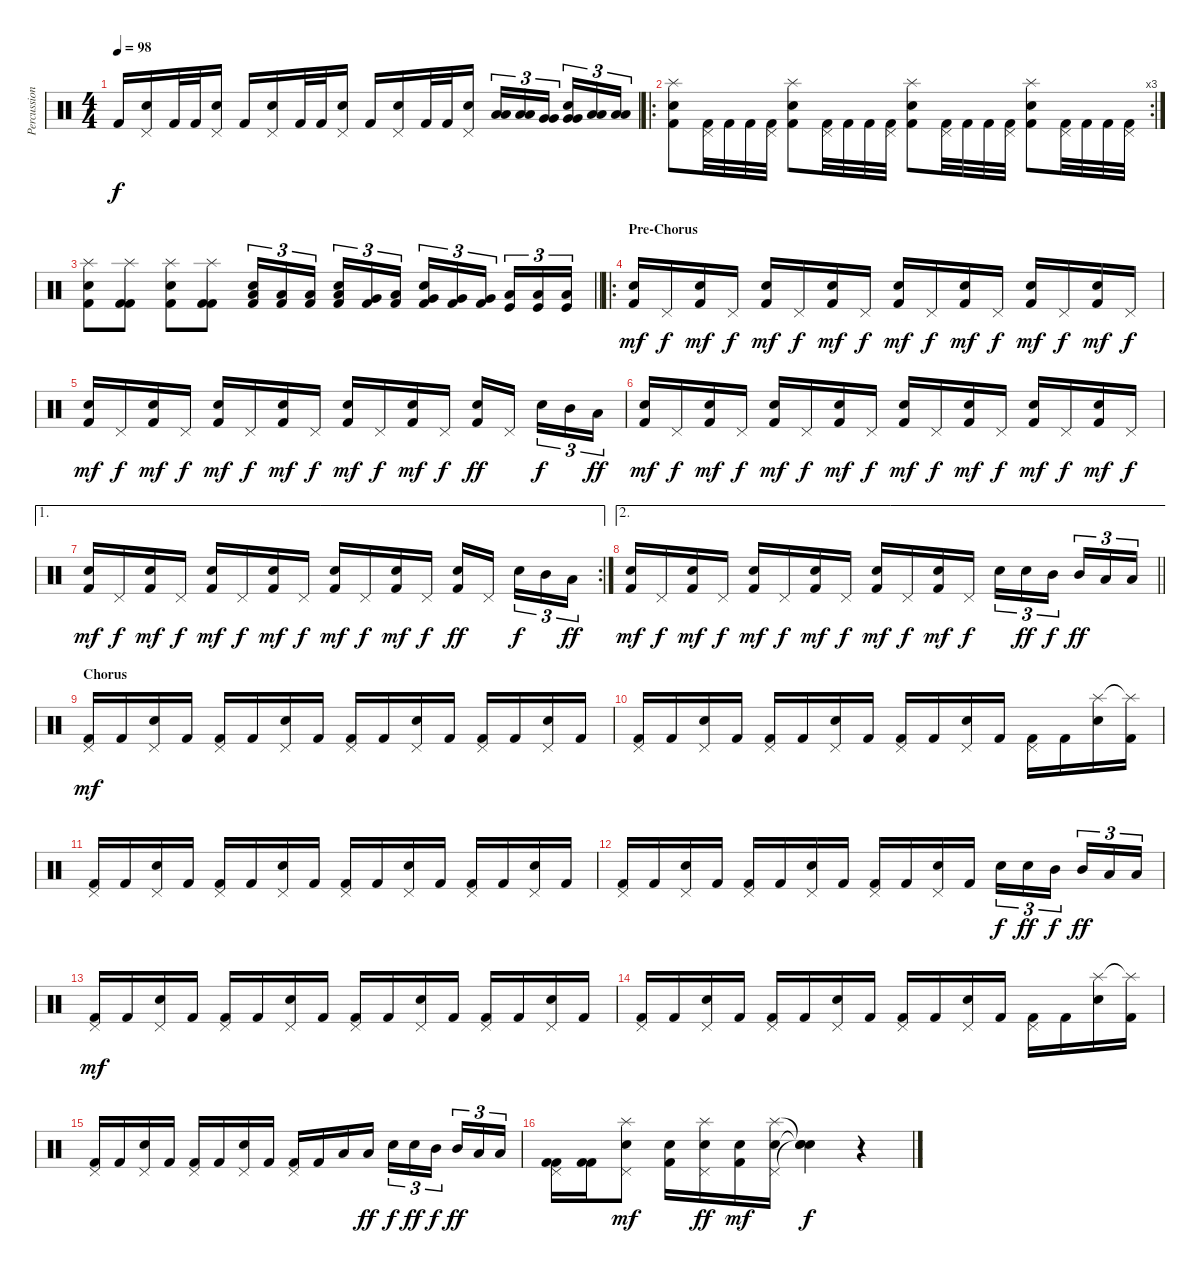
\track ("Percussion" "Percussion") {instrument percussion}
\staff {score}
\articulation defaults
\ts (4 4)
\tempo 98
\clef neutral
\ks c "Kick (hit) 2".16{dy f}
("Pedal Hi-Hat (hit)" "Snare (hit) 2").16 "Kick (hit) 2".32 "Kick (hit) 2".32 ("Pedal Hi-Hat (hit)" "Snare (hit) 2").16 "Kick (hit) 2".16 ("Pedal Hi-Hat (hit)" "Snare (hit) 2").16 "Kick (hit) 2".32 "Kick (hit) 2".32 ("Pedal Hi-Hat (hit)" "Snare (hit) 2").16 "Kick (hit) 2".16 ("Pedal Hi-Hat (hit)" "Snare (hit) 2").16 "Kick (hit) 2".32 "Kick (hit) 2".32 ("Pedal Hi-Hat (hit)" "Snare (hit) 2").16 ("Low Tom (hit)" "Low Tom (hit)").16{tu (3 2)} ("Low Tom (hit)" "Low Tom (hit)").16{tu (3 2)} ("Very Low Tom (hit)" "Very Low Tom (hit)").16{tu (3 2) beam splitsecondary} ("Very Low Tom (hit)" "Very Low Tom (hit)" "Snare (hit) 2").16{tu (3 2)} ("Low Floor Tom (hit)" "Low Floor Tom (hit)").16{tu (3 2)} ("Low Floor Tom (hit)" "Low Floor Tom (hit)").16{tu (3 2)} |
\ro
\rc 3
("Splash (hit)" "Snare (hit) 2" "Kick (hit) 2").8 ("Pedal Hi-Hat (hit)" "Kick (hit) 2").32 "Kick (hit) 2".32 "Kick (hit) 2".32 ("Pedal Hi-Hat (hit)" "Kick (hit) 2").32 ("Splash (hit)" "Snare (hit) 2" "Kick (hit) 2").8 ("Pedal Hi-Hat (hit)" "Kick (hit) 2").32 "Kick (hit) 2".32 "Kick (hit) 2".32 ("Pedal Hi-Hat (hit)" "Kick (hit) 2").32 ("Splash (hit)" "Snare (hit) 2" "Kick (hit) 2").8 ("Pedal Hi-Hat (hit)" "Kick (hit) 2").32 "Kick (hit) 2".32 "Kick (hit) 2".32 ("Pedal Hi-Hat (hit)" "Kick (hit) 2").32 ("Splash (hit)" "Snare (hit) 2" "Kick (hit) 2").8 ("Pedal Hi-Hat (hit)" "Kick (hit) 2").32 "Kick (hit) 2".32 "Kick (hit) 2".32 ("Pedal Hi-Hat (hit)" "Kick (hit) 2").32 |
\barLineRight lightlight
("Splash (hit)" "Snare (hit) 2" "Kick (hit) 2").8 ("Splash (hit)" "Kick (hit) 2" "Kick (hit) 2").8 ("Splash (hit)" "Snare (hit) 2" "Kick (hit) 2").8 ("Splash (hit)" "Kick (hit) 2" "Kick (hit) 2").8 ("Low Floor Tom (hit)" "Kick (hit) 2" "Snare (hit) 2").16{tu (3 2)} ("Low Floor Tom (hit)" "Kick (hit) 2").16{tu (3 2)} ("Low Floor Tom (hit)" "Kick (hit) 2").16{tu (3 2) beam splitsecondary} ("Low Tom (hit)" "Kick (hit) 2" "Snare (hit) 2").16{tu (3 2)} ("Very Low Tom (hit)" "Kick (hit) 2").16{tu (3 2)} ("Low Floor Tom (hit)" "Kick (hit) 2").16{tu (3 2)} ("Very Low Tom (hit)" "Kick (hit) 2" "Snare (hit) 2").16{tu (3 2)} ("Very Low Tom (hit)" "Kick (hit) 2").16{tu (3 2)} ("Very Low Tom (hit)" "Kick (hit) 2").16{tu (3 2) beam splitsecondary} ("Low Floor Tom (hit)" "Kick (hit)").16{tu (3 2)} ("Low Floor Tom (hit)" "Kick (hit)").16{tu (3 2)} ("Low Floor Tom (hit)" "Kick (hit)").16{tu (3 2)} |
\ro
\section ("" "Pre-Chorus")
("Snare (hit) 2" "Kick (hit) 2").16{dy mf} "Pedal Hi-Hat (hit)".16{dy f} ("Snare (hit) 2" "Kick (hit) 2").16{dy mf} "Pedal Hi-Hat (hit)".16{dy f} ("Snare (hit) 2" "Kick (hit) 2").16{dy mf} "Pedal Hi-Hat (hit)".16{dy f} ("Snare (hit) 2" "Kick (hit) 2").16{dy mf} "Pedal Hi-Hat (hit)".16{dy f} ("Snare (hit) 2" "Kick (hit) 2").16{dy mf} "Pedal Hi-Hat (hit)".16{dy f} ("Snare (hit) 2" "Kick (hit) 2").16{dy mf} "Pedal Hi-Hat (hit)".16{dy f} ("Snare (hit) 2" "Kick (hit) 2").16{dy mf} "Pedal Hi-Hat (hit)".16{dy f} ("Snare (hit) 2" "Kick (hit) 2").16{dy mf} "Pedal Hi-Hat (hit)".16{dy f} |
("Snare (hit) 2" "Kick (hit) 2").16{dy mf} "Pedal Hi-Hat (hit)".16{dy f} ("Snare (hit) 2" "Kick (hit) 2").16{dy mf} "Pedal Hi-Hat (hit)".16{dy f} ("Snare (hit) 2" "Kick (hit) 2").16{dy mf} "Pedal Hi-Hat (hit)".16{dy f} ("Snare (hit) 2" "Kick (hit) 2").16{dy mf} "Pedal Hi-Hat (hit)".16{dy f} ("Snare (hit) 2" "Kick (hit) 2").16{dy mf} "Pedal Hi-Hat (hit)".16{dy f} ("Snare (hit) 2" "Kick (hit) 2").16{dy mf} "Pedal Hi-Hat (hit)".16{dy f} ("Snare (hit) 2" "Kick (hit) 2").16{dy ff} "Pedal Hi-Hat (hit)".16{beam splitsecondary} "Snare (hit) 2".16{tu (3 2) dy f} "Mid Tom (hit)".16{tu (3 2)} "Low Tom (hit)".16{tu (3 2) dy ff} |
("Snare (hit) 2" "Kick (hit) 2").16{dy mf} "Pedal Hi-Hat (hit)".16{dy f} ("Snare (hit) 2" "Kick (hit) 2").16{dy mf} "Pedal Hi-Hat (hit)".16{dy f} ("Snare (hit) 2" "Kick (hit) 2").16{dy mf} "Pedal Hi-Hat (hit)".16{dy f} ("Snare (hit) 2" "Kick (hit) 2").16{dy mf} "Pedal Hi-Hat (hit)".16{dy f} ("Snare (hit) 2" "Kick (hit) 2").16{dy mf} "Pedal Hi-Hat (hit)".16{dy f} ("Snare (hit) 2" "Kick (hit) 2").16{dy mf} "Pedal Hi-Hat (hit)".16{dy f} ("Snare (hit) 2" "Kick (hit) 2").16{dy mf} "Pedal Hi-Hat (hit)".16{dy f} ("Snare (hit) 2" "Kick (hit) 2").16{dy mf} "Pedal Hi-Hat (hit)".16{dy f} |
\ae 1
\rc 2
("Snare (hit) 2" "Kick (hit) 2").16{dy mf} "Pedal Hi-Hat (hit)".16{dy f} ("Snare (hit) 2" "Kick (hit) 2").16{dy mf} "Pedal Hi-Hat (hit)".16{dy f} ("Snare (hit) 2" "Kick (hit) 2").16{dy mf} "Pedal Hi-Hat (hit)".16{dy f} ("Snare (hit) 2" "Kick (hit) 2").16{dy mf} "Pedal Hi-Hat (hit)".16{dy f} ("Snare (hit) 2" "Kick (hit) 2").16{dy mf} "Pedal Hi-Hat (hit)".16{dy f} ("Snare (hit) 2" "Kick (hit) 2").16{dy mf} "Pedal Hi-Hat (hit)".16{dy f} ("Snare (hit) 2" "Kick (hit) 2").16{dy ff} "Pedal Hi-Hat (hit)".16{beam splitsecondary} "Snare (hit) 2".16{tu (3 2) dy f} "Mid Tom (hit)".16{tu (3 2)} "Low Tom (hit)".16{tu (3 2) dy ff} |
\ae 2
\barLineRight lightlight
("Snare (hit) 2" "Kick (hit) 2").16{dy mf} "Pedal Hi-Hat (hit)".16{dy f} ("Snare (hit) 2" "Kick (hit) 2").16{dy mf} "Pedal Hi-Hat (hit)".16{dy f} ("Snare (hit) 2" "Kick (hit) 2").16{dy mf} "Pedal Hi-Hat (hit)".16{dy f} ("Snare (hit) 2" "Kick (hit) 2").16{dy mf} "Pedal Hi-Hat (hit)".16{dy f} ("Snare (hit) 2" "Kick (hit) 2").16{dy mf} "Pedal Hi-Hat (hit)".16{dy f} ("Snare (hit) 2" "Kick (hit) 2").16{dy mf} "Pedal Hi-Hat (hit)".16{dy f} "Snare (hit) 2".16{tu (3 2)} "Snare (hit) 2".16{tu (3 2) dy ff} "Mid Tom (hit)".16{tu (3 2) dy f beam splitsecondary} "Mid Tom (hit)".16{tu (3 2) dy ff} "Low Tom (hit)".16{tu (3 2)} "Low Tom (hit)".16{tu (3 2)} |
\section ("" "Chorus")
("Pedal Hi-Hat (hit)" "Kick (hit) 2").16{dy mf} "Kick (hit) 2".16 ("Pedal Hi-Hat (hit)" "Snare (hit) 2").16 "Kick (hit) 2".16 ("Pedal Hi-Hat (hit)" "Kick (hit) 2").16 "Kick (hit) 2".16 ("Pedal Hi-Hat (hit)" "Snare (hit) 2").16 "Kick (hit) 2".16 ("Pedal Hi-Hat (hit)" "Kick (hit) 2").16 "Kick (hit) 2".16 ("Pedal Hi-Hat (hit)" "Snare (hit) 2").16 "Kick (hit) 2".16 ("Pedal Hi-Hat (hit)" "Kick (hit) 2").16 "Kick (hit) 2".16 ("Pedal Hi-Hat (hit)" "Snare (hit) 2").16 "Kick (hit) 2".16 |
("Pedal Hi-Hat (hit)" "Kick (hit) 2").16 "Kick (hit) 2".16 ("Pedal Hi-Hat (hit)" "Snare (hit) 2").16 "Kick (hit) 2".16 ("Pedal Hi-Hat (hit)" "Kick (hit) 2").16 "Kick (hit) 2".16 ("Pedal Hi-Hat (hit)" "Snare (hit) 2").16 "Kick (hit) 2".16 ("Pedal Hi-Hat (hit)" "Kick (hit) 2").16 "Kick (hit) 2".16 ("Pedal Hi-Hat (hit)" "Snare (hit) 2").16 "Kick (hit) 2".16 ("Pedal Hi-Hat (hit)" "Kick (hit) 2").16 "Kick (hit) 2".16 ("Splash (hit)" "Snare (hit) 2").16 ("Splash (hit)"{t} "Kick (hit) 2").16 |
("Pedal Hi-Hat (hit)" "Kick (hit) 2").16 "Kick (hit) 2".16 ("Pedal Hi-Hat (hit)" "Snare (hit) 2").16 "Kick (hit) 2".16 ("Pedal Hi-Hat (hit)" "Kick (hit) 2").16 "Kick (hit) 2".16 ("Pedal Hi-Hat (hit)" "Snare (hit) 2").16 "Kick (hit) 2".16 ("Pedal Hi-Hat (hit)" "Kick (hit) 2").16 "Kick (hit) 2".16 ("Pedal Hi-Hat (hit)" "Snare (hit) 2").16 "Kick (hit) 2".16 ("Pedal Hi-Hat (hit)" "Kick (hit) 2").16 "Kick (hit) 2".16 ("Pedal Hi-Hat (hit)" "Snare (hit) 2").16 "Kick (hit) 2".16 |
("Pedal Hi-Hat (hit)" "Kick (hit) 2").16 "Kick (hit) 2".16 ("Pedal Hi-Hat (hit)" "Snare (hit) 2").16 "Kick (hit) 2".16 ("Pedal Hi-Hat (hit)" "Kick (hit) 2").16 "Kick (hit) 2".16 ("Pedal Hi-Hat (hit)" "Snare (hit) 2").16 "Kick (hit) 2".16 ("Pedal Hi-Hat (hit)" "Kick (hit) 2").16 "Kick (hit) 2".16 ("Pedal Hi-Hat (hit)" "Snare (hit) 2").16 "Kick (hit) 2".16 "Snare (hit) 2".16{tu (3 2) dy f} "Snare (hit) 2".16{tu (3 2) dy ff} "Mid Tom (hit)".16{tu (3 2) dy f beam splitsecondary} "Mid Tom (hit)".16{tu (3 2) dy ff} "Low Tom (hit)".16{tu (3 2)} "Low Tom (hit)".16{tu (3 2)} |
("Pedal Hi-Hat (hit)" "Kick (hit) 2").16{dy mf} "Kick (hit) 2".16 ("Pedal Hi-Hat (hit)" "Snare (hit) 2").16 "Kick (hit) 2".16 ("Pedal Hi-Hat (hit)" "Kick (hit) 2").16 "Kick (hit) 2".16 ("Pedal Hi-Hat (hit)" "Snare (hit) 2").16 "Kick (hit) 2".16 ("Pedal Hi-Hat (hit)" "Kick (hit) 2").16 "Kick (hit) 2".16 ("Pedal Hi-Hat (hit)" "Snare (hit) 2").16 "Kick (hit) 2".16 ("Pedal Hi-Hat (hit)" "Kick (hit) 2").16 "Kick (hit) 2".16 ("Pedal Hi-Hat (hit)" "Snare (hit) 2").16 "Kick (hit) 2".16 |
("Pedal Hi-Hat (hit)" "Kick (hit) 2").16 "Kick (hit) 2".16 ("Pedal Hi-Hat (hit)" "Snare (hit) 2").16 "Kick (hit) 2".16 ("Pedal Hi-Hat (hit)" "Kick (hit) 2").16 "Kick (hit) 2".16 ("Pedal Hi-Hat (hit)" "Snare (hit) 2").16 "Kick (hit) 2".16 ("Pedal Hi-Hat (hit)" "Kick (hit) 2").16 "Kick (hit) 2".16 ("Pedal Hi-Hat (hit)" "Snare (hit) 2").16 "Kick (hit) 2".16 ("Pedal Hi-Hat (hit)" "Kick (hit) 2").16 "Kick (hit) 2".16 ("Splash (hit)" "Snare (hit) 2").16 ("Splash (hit)"{t} "Kick (hit) 2").16 |
("Pedal Hi-Hat (hit)" "Kick (hit) 2").16 "Kick (hit) 2".16 ("Pedal Hi-Hat (hit)" "Snare (hit) 2").16 "Kick (hit) 2".16 ("Pedal Hi-Hat (hit)" "Kick (hit) 2").16 "Kick (hit) 2".16 ("Pedal Hi-Hat (hit)" "Snare (hit) 2").16 "Kick (hit) 2".16 ("Pedal Hi-Hat (hit)" "Kick (hit) 2").16 "Kick (hit) 2".16 "Low Tom (hit)".16 "Low Tom (hit)".16{dy ff} "Snare (hit) 2".16{tu (3 2) dy f} "Snare (hit) 2".16{tu (3 2) dy ff} "Mid Tom (hit)".16{tu (3 2) dy f beam splitsecondary} "Mid Tom (hit)".16{tu (3 2) dy ff} "Low Tom (hit)".16{tu (3 2)} "Low Tom (hit)".16{tu (3 2)} |
("Pedal Hi-Hat (hit)" "Kick (hit) 2" "Kick (hit) 2").16 ("Kick (hit) 2" "Kick (hit) 2").16 ("Splash (hit)" "Pedal Hi-Hat (hit)" "Snare (hit) 2").8{dy mf} ("Snare (hit) 2" "Kick (hit) 2").16 ("Splash (hit)" "Pedal Hi-Hat (hit)" "Snare (hit) 2").16{dy ff} ("Snare (hit) 2" "Kick (hit) 2").16{dy mf} ("Splash (hit)" "Pedal Hi-Hat (hit)" "Snare (hit) 2").16 ("Snare (hit)"{t} "Snare (hit)"{t} "Snare (hit)"{t}).4{dy f} r.4
